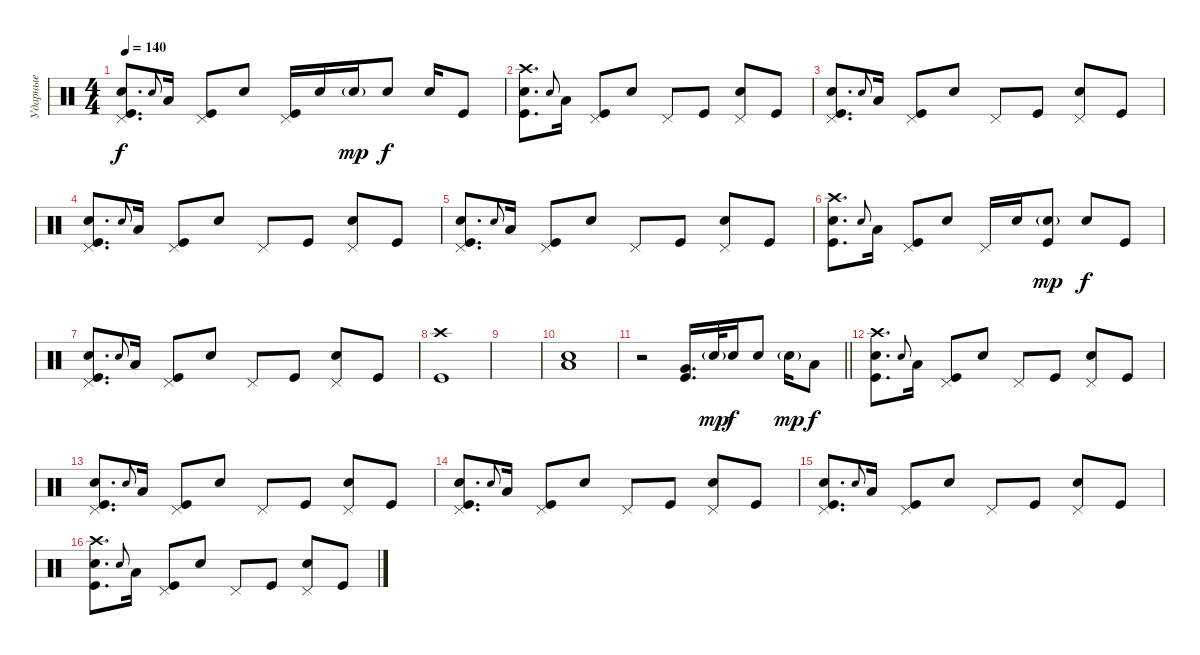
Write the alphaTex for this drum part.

\track ("Ударные" "Ударные") {instrument percussion}
\staff {score}
\articulation defaults
\ts (4 4)
\tempo 140
\clef neutral
\ks c
("Pedal Hi-Hat (hit)" "Snare (hit) 2" "Kick (hit)").8{d dy f} "Snare (hit) 2"{x}.8{gr onbeat} "Low Tom (hit)".16 ("Pedal Hi-Hat (hit)" "Kick (hit)").8 "Snare (hit) 2".8 ("Pedal Hi-Hat (hit)" "Kick (hit)").16 "Snare (hit) 2".16 "Snare (hit) 2"{g}.16{dy mp} "Snare (hit) 2".8{dy f} "Snare (hit) 2".16 "Kick (hit)".8 |
("Crash high (hit)" "Snare (hit) 2" "Kick (hit)").8{d} "Snare (hit) 2"{x}.8{gr onbeat} "Low Tom (hit)".16 ("Pedal Hi-Hat (hit)" "Kick (hit)").8 "Snare (hit) 2".8 "Pedal Hi-Hat (hit)".8 "Kick (hit)".8 ("Pedal Hi-Hat (hit)" "Electric Snare (hit)").8 "Kick (hit)".8 |
("Pedal Hi-Hat (hit)" "Snare (hit) 2" "Kick (hit)").8{d} "Snare (hit) 2"{x}.8{gr onbeat} "Low Tom (hit)".16 ("Pedal Hi-Hat (hit)" "Kick (hit)").8 "Snare (hit) 2".8 "Pedal Hi-Hat (hit)".8 "Kick (hit)".8 ("Pedal Hi-Hat (hit)" "Electric Snare (hit)").8 "Kick (hit)".8 |
("Pedal Hi-Hat (hit)" "Snare (hit) 2" "Kick (hit)").8{d} "Snare (hit) 2"{x}.8{gr onbeat} "Low Tom (hit)".16 ("Pedal Hi-Hat (hit)" "Kick (hit)").8 "Snare (hit) 2".8 "Pedal Hi-Hat (hit)".8 "Kick (hit)".8 ("Pedal Hi-Hat (hit)" "Electric Snare (hit)").8 "Kick (hit)".8 |
("Pedal Hi-Hat (hit)" "Snare (hit) 2" "Kick (hit)").8{d} "Snare (hit) 2"{x}.8{gr onbeat} "Low Tom (hit)".16 ("Pedal Hi-Hat (hit)" "Kick (hit)").8 "Snare (hit) 2".8 "Pedal Hi-Hat (hit)".8 "Kick (hit)".8 ("Pedal Hi-Hat (hit)" "Electric Snare (hit)").8 "Kick (hit)".8 |
("Crash high (hit)" "Snare (hit) 2" "Kick (hit)").8{d} "Snare (hit) 2"{x}.8{gr onbeat} "Low Tom (hit)".16 ("Pedal Hi-Hat (hit)" "Kick (hit)").8 "Snare (hit) 2".8 "Pedal Hi-Hat (hit)".16 "Snare (hit) 2".16 ("Snare (hit) 2"{g} "Kick (hit)").8{dy mp} "Electric Snare (hit)".8{dy f} "Kick (hit)".8 |
("Pedal Hi-Hat (hit)" "Snare (hit) 2" "Kick (hit)").8{d} "Snare (hit) 2"{x}.8{gr onbeat} "Low Tom (hit)".16 ("Pedal Hi-Hat (hit)" "Kick (hit)").8 "Snare (hit) 2".8 "Pedal Hi-Hat (hit)".8 "Kick (hit)".8 ("Pedal Hi-Hat (hit)" "Electric Snare (hit)").8 "Kick (hit)".8 |
("Crash high (hit)" "Kick (hit)").1 |
|
("Snare (hit) 2" "Low Tom (hit)").1 |
\barLineRight lightlight
r.2 ("Very Low Tom (hit)" "Kick (hit)").16{d} "Electric Snare (hit)"{g}.32{dy mp} "Snare (hit) 2".16{dy f} "Snare (hit) 2".8 "Snare (hit) 2"{g}.16{dy mp} "Low Tom (hit)".8{dy f} |
("Crash high (hit)" "Snare (hit) 2" "Kick (hit)").8{d} "Snare (hit) 2"{x}.8{gr onbeat} "Low Tom (hit)".16 ("Pedal Hi-Hat (hit)" "Kick (hit)").8 "Snare (hit) 2".8 "Pedal Hi-Hat (hit)".8 "Kick (hit)".8 ("Pedal Hi-Hat (hit)" "Electric Snare (hit)").8 "Kick (hit)".8 |
("Pedal Hi-Hat (hit)" "Snare (hit) 2" "Kick (hit)").8{d} "Snare (hit) 2"{x}.8{gr onbeat} "Low Tom (hit)".16 ("Pedal Hi-Hat (hit)" "Kick (hit)").8 "Snare (hit) 2".8 "Pedal Hi-Hat (hit)".8 "Kick (hit)".8 ("Pedal Hi-Hat (hit)" "Electric Snare (hit)").8 "Kick (hit)".8 |
("Pedal Hi-Hat (hit)" "Snare (hit) 2" "Kick (hit)").8{d} "Snare (hit) 2"{x}.8{gr onbeat} "Low Tom (hit)".16 ("Pedal Hi-Hat (hit)" "Kick (hit)").8 "Snare (hit) 2".8 "Pedal Hi-Hat (hit)".8 "Kick (hit)".8 ("Pedal Hi-Hat (hit)" "Electric Snare (hit)").8 "Kick (hit)".8 |
("Pedal Hi-Hat (hit)" "Snare (hit) 2" "Kick (hit)").8{d} "Snare (hit) 2"{x}.8{gr onbeat} "Low Tom (hit)".16 ("Pedal Hi-Hat (hit)" "Kick (hit)").8 "Snare (hit) 2".8 "Pedal Hi-Hat (hit)".8 "Kick (hit)".8 ("Pedal Hi-Hat (hit)" "Electric Snare (hit)").8 "Kick (hit)".8 |
("Crash high (hit)" "Snare (hit) 2" "Kick (hit)").8{d} "Snare (hit) 2"{x}.8{gr onbeat} "Low Tom (hit)".16 ("Pedal Hi-Hat (hit)" "Kick (hit)").8 "Snare (hit) 2".8 "Pedal Hi-Hat (hit)".8 "Kick (hit)".8 ("Pedal Hi-Hat (hit)" "Electric Snare (hit)").8 "Kick (hit)".8
